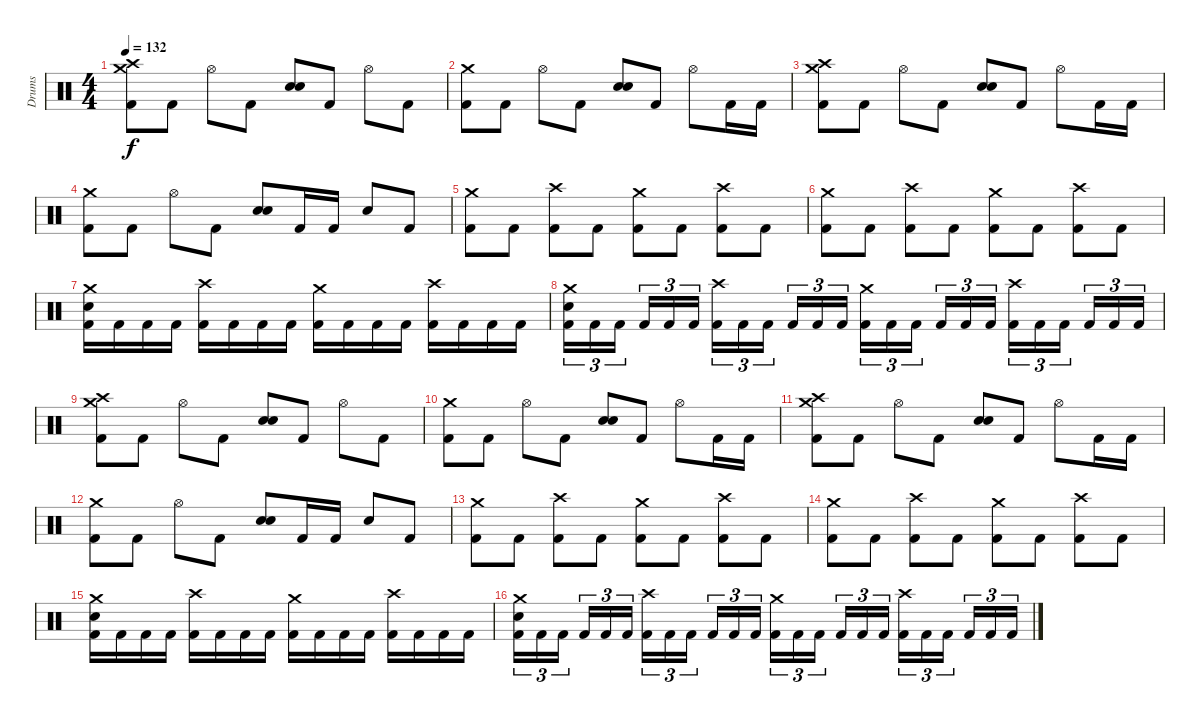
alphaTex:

\track ("Drums" "Drums") {instrument percussion}
\staff {score}
\articulation defaults
\ts (4 4)
\tempo 132
\clef neutral
\ks c
("Crash medium (hit)" "Crash high (hit)" "Kick (hit) 2").8{dy f} "Kick (hit) 2".8 "Hi-Hat (open)".8 "Kick (hit) 2".8 ("Electric Snare (hit)" "Electric Snare (hit)").8{bd 480} "Kick (hit) 2".8 "Hi-Hat (open)".8 "Kick (hit) 2".8 |
("Crash medium (hit)" "Kick (hit) 2").8 "Kick (hit) 2".8 "Hi-Hat (open)".8 "Kick (hit) 2".8 ("Electric Snare (hit)" "Electric Snare (hit)").8{bd 480} "Kick (hit) 2".8 "Hi-Hat (open)".8 "Kick (hit) 2".16 "Kick (hit) 2".16 |
("Crash medium (hit)" "Crash high (hit)" "Kick (hit) 2").8 "Kick (hit) 2".8 "Hi-Hat (open)".8 "Kick (hit) 2".8 ("Electric Snare (hit)" "Electric Snare (hit)").8{bd 480} "Kick (hit) 2".8 "Hi-Hat (open)".8 "Kick (hit) 2".16 "Kick (hit) 2".16 |
("Crash medium (hit)" "Kick (hit) 2").8 "Kick (hit) 2".8 "Hi-Hat (open)".8 "Kick (hit) 2".8 ("Electric Snare (hit)" "Electric Snare (hit)").8{bd 480} "Kick (hit) 2".16 "Kick (hit) 2".16 "Electric Snare (hit)".8 "Kick (hit) 2".8 |
("Crash medium (hit)" "Kick (hit) 2").8 "Kick (hit) 2".8 ("Crash high (hit)" "Kick (hit) 2").8 "Kick (hit) 2".8 ("Crash medium (hit)" "Kick (hit) 2").8 "Kick (hit) 2".8 ("Crash high (hit)" "Kick (hit) 2").8 "Kick (hit) 2".8 |
("Crash medium (hit)" "Kick (hit) 2").8 "Kick (hit) 2".8 ("Crash high (hit)" "Kick (hit) 2").8 "Kick (hit) 2".8 ("Crash medium (hit)" "Kick (hit) 2").8 "Kick (hit) 2".8 ("Crash high (hit)" "Kick (hit) 2").8 "Kick (hit) 2".8 |
("Crash medium (hit)" "Electric Snare (hit)" "Kick (hit) 2").16 "Kick (hit) 2".16 "Kick (hit) 2".16 "Kick (hit) 2".16 ("Crash high (hit)" "Kick (hit) 2").16 "Kick (hit) 2".16 "Kick (hit) 2".16 "Kick (hit) 2".16 ("Crash medium (hit)" "Kick (hit) 2").16 "Kick (hit) 2".16 "Kick (hit) 2".16 "Kick (hit) 2".16 ("Crash high (hit)" "Kick (hit) 2").16 "Kick (hit) 2".16 "Kick (hit) 2".16 "Kick (hit) 2".16 |
("Crash medium (hit)" "Electric Snare (hit)" "Kick (hit) 2").16{tu (3 2)} "Kick (hit) 2".16{tu (3 2)} "Kick (hit) 2".16{tu (3 2)} "Kick (hit) 2".16{tu (3 2)} "Kick (hit) 2".16{tu (3 2)} "Kick (hit) 2".16{tu (3 2)} ("Crash high (hit)" "Kick (hit) 2").16{tu (3 2)} "Kick (hit) 2".16{tu (3 2)} "Kick (hit) 2".16{tu (3 2)} "Kick (hit) 2".16{tu (3 2)} "Kick (hit) 2".16{tu (3 2)} "Kick (hit) 2".16{tu (3 2)} ("Crash medium (hit)" "Kick (hit) 2").16{tu (3 2)} "Kick (hit) 2".16{tu (3 2)} "Kick (hit) 2".16{tu (3 2)} "Kick (hit) 2".16{tu (3 2)} "Kick (hit) 2".16{tu (3 2)} "Kick (hit) 2".16{tu (3 2)} ("Crash high (hit)" "Kick (hit) 2").16{tu (3 2)} "Kick (hit) 2".16{tu (3 2)} "Kick (hit) 2".16{tu (3 2)} "Kick (hit) 2".16{tu (3 2)} "Kick (hit) 2".16{tu (3 2)} "Kick (hit) 2".16{tu (3 2)} |
("Crash medium (hit)" "Crash high (hit)" "Kick (hit) 2").8 "Kick (hit) 2".8 "Hi-Hat (open)".8 "Kick (hit) 2".8 ("Electric Snare (hit)" "Electric Snare (hit)").8{bd 480} "Kick (hit) 2".8 "Hi-Hat (open)".8 "Kick (hit) 2".8 |
("Crash medium (hit)" "Kick (hit) 2").8 "Kick (hit) 2".8 "Hi-Hat (open)".8 "Kick (hit) 2".8 ("Electric Snare (hit)" "Electric Snare (hit)").8{bd 480} "Kick (hit) 2".8 "Hi-Hat (open)".8 "Kick (hit) 2".16 "Kick (hit) 2".16 |
("Crash medium (hit)" "Crash high (hit)" "Kick (hit) 2").8 "Kick (hit) 2".8 "Hi-Hat (open)".8 "Kick (hit) 2".8 ("Electric Snare (hit)" "Electric Snare (hit)").8{bd 480} "Kick (hit) 2".8 "Hi-Hat (open)".8 "Kick (hit) 2".16 "Kick (hit) 2".16 |
("Crash medium (hit)" "Kick (hit) 2").8 "Kick (hit) 2".8 "Hi-Hat (open)".8 "Kick (hit) 2".8 ("Electric Snare (hit)" "Electric Snare (hit)").8{bd 480} "Kick (hit) 2".16 "Kick (hit) 2".16 "Electric Snare (hit)".8 "Kick (hit) 2".8 |
("Crash medium (hit)" "Kick (hit) 2").8 "Kick (hit) 2".8 ("Crash high (hit)" "Kick (hit) 2").8 "Kick (hit) 2".8 ("Crash medium (hit)" "Kick (hit) 2").8 "Kick (hit) 2".8 ("Crash high (hit)" "Kick (hit) 2").8 "Kick (hit) 2".8 |
("Crash medium (hit)" "Kick (hit) 2").8 "Kick (hit) 2".8 ("Crash high (hit)" "Kick (hit) 2").8 "Kick (hit) 2".8 ("Crash medium (hit)" "Kick (hit) 2").8 "Kick (hit) 2".8 ("Crash high (hit)" "Kick (hit) 2").8 "Kick (hit) 2".8 |
("Crash medium (hit)" "Electric Snare (hit)" "Kick (hit) 2").16 "Kick (hit) 2".16 "Kick (hit) 2".16 "Kick (hit) 2".16 ("Crash high (hit)" "Kick (hit) 2").16 "Kick (hit) 2".16 "Kick (hit) 2".16 "Kick (hit) 2".16 ("Crash medium (hit)" "Kick (hit) 2").16 "Kick (hit) 2".16 "Kick (hit) 2".16 "Kick (hit) 2".16 ("Crash high (hit)" "Kick (hit) 2").16 "Kick (hit) 2".16 "Kick (hit) 2".16 "Kick (hit) 2".16 |
("Crash medium (hit)" "Electric Snare (hit)" "Kick (hit) 2").16{tu (3 2)} "Kick (hit) 2".16{tu (3 2)} "Kick (hit) 2".16{tu (3 2)} "Kick (hit) 2".16{tu (3 2)} "Kick (hit) 2".16{tu (3 2)} "Kick (hit) 2".16{tu (3 2)} ("Crash high (hit)" "Kick (hit) 2").16{tu (3 2)} "Kick (hit) 2".16{tu (3 2)} "Kick (hit) 2".16{tu (3 2)} "Kick (hit) 2".16{tu (3 2)} "Kick (hit) 2".16{tu (3 2)} "Kick (hit) 2".16{tu (3 2)} ("Crash medium (hit)" "Kick (hit) 2").16{tu (3 2)} "Kick (hit) 2".16{tu (3 2)} "Kick (hit) 2".16{tu (3 2)} "Kick (hit) 2".16{tu (3 2)} "Kick (hit) 2".16{tu (3 2)} "Kick (hit) 2".16{tu (3 2)} ("Crash high (hit)" "Kick (hit) 2").16{tu (3 2)} "Kick (hit) 2".16{tu (3 2)} "Kick (hit) 2".16{tu (3 2)} "Kick (hit) 2".16{tu (3 2)} "Kick (hit) 2".16{tu (3 2)} "Kick (hit) 2".16{tu (3 2)}
